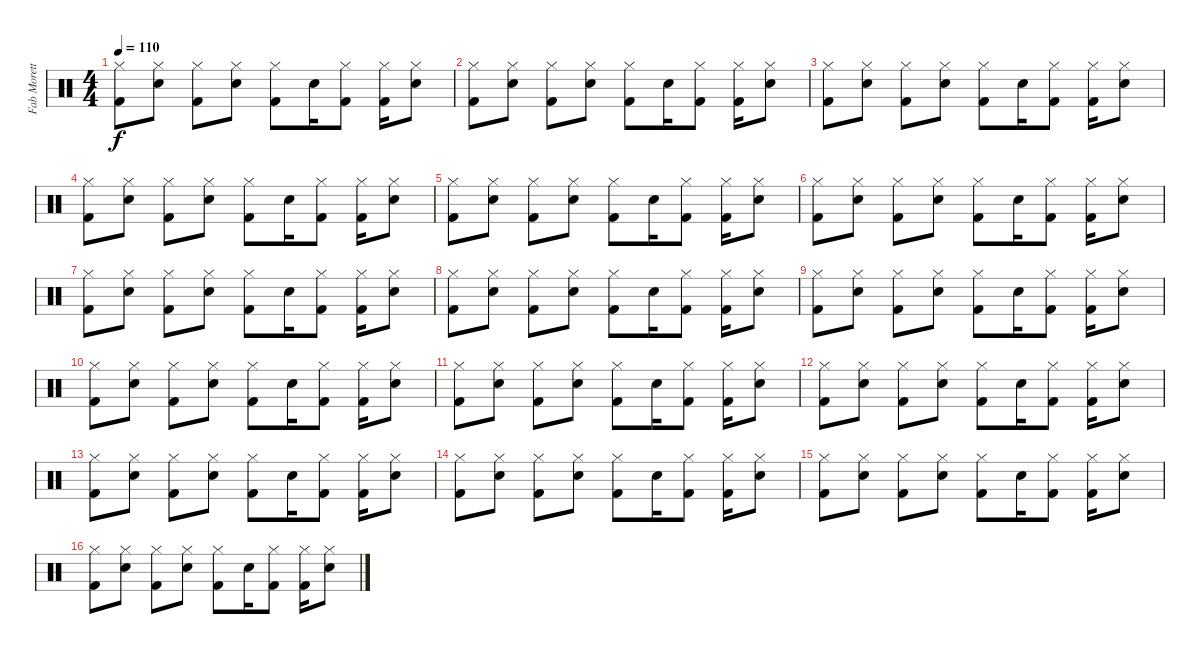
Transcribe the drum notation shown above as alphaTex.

\track ("Fab Moretti" "Fab Morett") {instrument percussion}
\staff {score}
\articulation defaults
\ts (4 4)
\tempo 110
\clef neutral
\ks c
("Kick (hit) 2" "Hi-Hat (closed)").8{dy f} ("Electric Snare (hit)" "Hi-Hat (closed)").8 ("Kick (hit) 2" "Hi-Hat (closed)").8 ("Electric Snare (hit)" "Hi-Hat (closed)").8 ("Kick (hit) 2" "Hi-Hat (closed)").8 "Electric Snare (hit)".16 ("Kick (hit) 2" "Hi-Hat (closed)").8 ("Kick (hit) 2" "Hi-Hat (closed)").16 ("Electric Snare (hit)" "Hi-Hat (closed)").8 |
("Kick (hit) 2" "Hi-Hat (closed)").8 ("Electric Snare (hit)" "Hi-Hat (closed)").8 ("Kick (hit) 2" "Hi-Hat (closed)").8 ("Electric Snare (hit)" "Hi-Hat (closed)").8 ("Kick (hit) 2" "Hi-Hat (closed)").8 "Electric Snare (hit)".16 ("Kick (hit) 2" "Hi-Hat (closed)").8 ("Kick (hit) 2" "Hi-Hat (closed)").16 ("Electric Snare (hit)" "Hi-Hat (closed)").8 |
("Kick (hit) 2" "Hi-Hat (closed)").8 ("Electric Snare (hit)" "Hi-Hat (closed)").8 ("Kick (hit) 2" "Hi-Hat (closed)").8 ("Electric Snare (hit)" "Hi-Hat (closed)").8 ("Kick (hit) 2" "Hi-Hat (closed)").8 "Electric Snare (hit)".16 ("Kick (hit) 2" "Hi-Hat (closed)").8 ("Kick (hit) 2" "Hi-Hat (closed)").16 ("Electric Snare (hit)" "Hi-Hat (closed)").8 |
("Kick (hit) 2" "Hi-Hat (closed)").8 ("Electric Snare (hit)" "Hi-Hat (closed)").8 ("Kick (hit) 2" "Hi-Hat (closed)").8 ("Electric Snare (hit)" "Hi-Hat (closed)").8 ("Kick (hit) 2" "Hi-Hat (closed)").8 "Electric Snare (hit)".16 ("Kick (hit) 2" "Hi-Hat (closed)").8 ("Kick (hit) 2" "Hi-Hat (closed)").16 ("Electric Snare (hit)" "Hi-Hat (closed)").8 |
("Kick (hit) 2" "Hi-Hat (closed)").8 ("Electric Snare (hit)" "Hi-Hat (closed)").8 ("Kick (hit) 2" "Hi-Hat (closed)").8 ("Electric Snare (hit)" "Hi-Hat (closed)").8 ("Kick (hit) 2" "Hi-Hat (closed)").8 "Electric Snare (hit)".16 ("Kick (hit) 2" "Hi-Hat (closed)").8 ("Kick (hit) 2" "Hi-Hat (closed)").16 ("Electric Snare (hit)" "Hi-Hat (closed)").8 |
("Kick (hit) 2" "Hi-Hat (closed)").8 ("Electric Snare (hit)" "Hi-Hat (closed)").8 ("Kick (hit) 2" "Hi-Hat (closed)").8 ("Electric Snare (hit)" "Hi-Hat (closed)").8 ("Kick (hit) 2" "Hi-Hat (closed)").8 "Electric Snare (hit)".16 ("Kick (hit) 2" "Hi-Hat (closed)").8 ("Kick (hit) 2" "Hi-Hat (closed)").16 ("Electric Snare (hit)" "Hi-Hat (closed)").8 |
("Kick (hit) 2" "Hi-Hat (closed)").8 ("Electric Snare (hit)" "Hi-Hat (closed)").8 ("Kick (hit) 2" "Hi-Hat (closed)").8 ("Electric Snare (hit)" "Hi-Hat (closed)").8 ("Kick (hit) 2" "Hi-Hat (closed)").8 "Electric Snare (hit)".16 ("Kick (hit) 2" "Hi-Hat (closed)").8 ("Kick (hit) 2" "Hi-Hat (closed)").16 ("Electric Snare (hit)" "Hi-Hat (closed)").8 |
("Kick (hit) 2" "Hi-Hat (closed)").8 ("Electric Snare (hit)" "Hi-Hat (closed)").8 ("Kick (hit) 2" "Hi-Hat (closed)").8 ("Electric Snare (hit)" "Hi-Hat (closed)").8 ("Kick (hit) 2" "Hi-Hat (closed)").8 "Electric Snare (hit)".16 ("Kick (hit) 2" "Hi-Hat (closed)").8 ("Kick (hit) 2" "Hi-Hat (closed)").16 ("Electric Snare (hit)" "Hi-Hat (closed)").8 |
("Kick (hit) 2" "Hi-Hat (closed)").8 ("Electric Snare (hit)" "Hi-Hat (closed)").8 ("Kick (hit) 2" "Hi-Hat (closed)").8 ("Electric Snare (hit)" "Hi-Hat (closed)").8 ("Kick (hit) 2" "Hi-Hat (closed)").8 "Electric Snare (hit)".16 ("Kick (hit) 2" "Hi-Hat (closed)").8 ("Kick (hit) 2" "Hi-Hat (closed)").16 ("Electric Snare (hit)" "Hi-Hat (closed)").8 |
("Kick (hit) 2" "Hi-Hat (closed)").8 ("Electric Snare (hit)" "Hi-Hat (closed)").8 ("Kick (hit) 2" "Hi-Hat (closed)").8 ("Electric Snare (hit)" "Hi-Hat (closed)").8 ("Kick (hit) 2" "Hi-Hat (closed)").8 "Electric Snare (hit)".16 ("Kick (hit) 2" "Hi-Hat (closed)").8 ("Kick (hit) 2" "Hi-Hat (closed)").16 ("Electric Snare (hit)" "Hi-Hat (closed)").8 |
("Kick (hit) 2" "Hi-Hat (closed)").8 ("Electric Snare (hit)" "Hi-Hat (closed)").8 ("Kick (hit) 2" "Hi-Hat (closed)").8 ("Electric Snare (hit)" "Hi-Hat (closed)").8 ("Kick (hit) 2" "Hi-Hat (closed)").8 "Electric Snare (hit)".16 ("Kick (hit) 2" "Hi-Hat (closed)").8 ("Kick (hit) 2" "Hi-Hat (closed)").16 ("Electric Snare (hit)" "Hi-Hat (closed)").8 |
("Kick (hit) 2" "Hi-Hat (closed)").8 ("Electric Snare (hit)" "Hi-Hat (closed)").8 ("Kick (hit) 2" "Hi-Hat (closed)").8 ("Electric Snare (hit)" "Hi-Hat (closed)").8 ("Kick (hit) 2" "Hi-Hat (closed)").8 "Electric Snare (hit)".16 ("Kick (hit) 2" "Hi-Hat (closed)").8 ("Kick (hit) 2" "Hi-Hat (closed)").16 ("Electric Snare (hit)" "Hi-Hat (closed)").8 |
("Kick (hit) 2" "Hi-Hat (closed)").8 ("Electric Snare (hit)" "Hi-Hat (closed)").8 ("Kick (hit) 2" "Hi-Hat (closed)").8 ("Electric Snare (hit)" "Hi-Hat (closed)").8 ("Kick (hit) 2" "Hi-Hat (closed)").8 "Electric Snare (hit)".16 ("Kick (hit) 2" "Hi-Hat (closed)").8 ("Kick (hit) 2" "Hi-Hat (closed)").16 ("Electric Snare (hit)" "Hi-Hat (closed)").8 |
("Kick (hit) 2" "Hi-Hat (closed)").8 ("Electric Snare (hit)" "Hi-Hat (closed)").8 ("Kick (hit) 2" "Hi-Hat (closed)").8 ("Electric Snare (hit)" "Hi-Hat (closed)").8 ("Kick (hit) 2" "Hi-Hat (closed)").8 "Electric Snare (hit)".16 ("Kick (hit) 2" "Hi-Hat (closed)").8 ("Kick (hit) 2" "Hi-Hat (closed)").16 ("Electric Snare (hit)" "Hi-Hat (closed)").8 |
("Kick (hit) 2" "Hi-Hat (closed)").8 ("Electric Snare (hit)" "Hi-Hat (closed)").8 ("Kick (hit) 2" "Hi-Hat (closed)").8 ("Electric Snare (hit)" "Hi-Hat (closed)").8 ("Kick (hit) 2" "Hi-Hat (closed)").8 "Electric Snare (hit)".16 ("Kick (hit) 2" "Hi-Hat (closed)").8 ("Kick (hit) 2" "Hi-Hat (closed)").16 ("Electric Snare (hit)" "Hi-Hat (closed)").8 |
("Kick (hit) 2" "Hi-Hat (closed)").8 ("Electric Snare (hit)" "Hi-Hat (closed)").8 ("Kick (hit) 2" "Hi-Hat (closed)").8 ("Electric Snare (hit)" "Hi-Hat (closed)").8 ("Kick (hit) 2" "Hi-Hat (closed)").8 "Electric Snare (hit)".16 ("Kick (hit) 2" "Hi-Hat (closed)").8 ("Kick (hit) 2" "Hi-Hat (closed)").16 ("Electric Snare (hit)" "Hi-Hat (closed)").8
